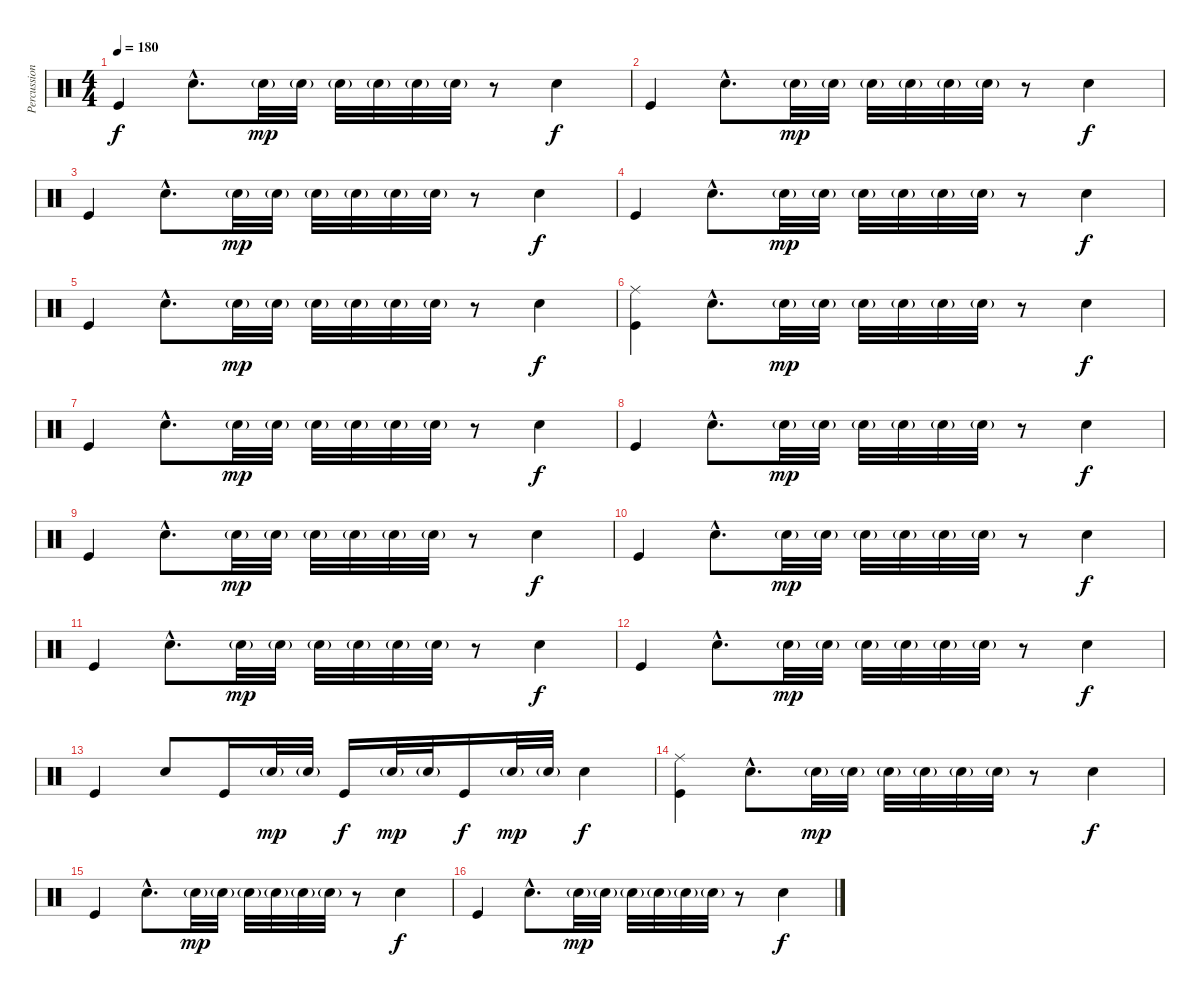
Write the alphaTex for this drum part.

\track ("Percussion" "Percussion") {instrument percussion}
\staff {score}
\articulation defaults
\ts (4 4)
\tempo 180
\clef neutral
\ks c "Kick (hit)".4{dy f} "Snare (hit) 2"{hac}.8{d} "Snare (hit) 2"{g}.32{dy mp} "Snare (hit) 2"{g}.32 "Snare (hit) 2"{g}.32 "Snare (hit) 2"{g}.32 "Snare (hit) 2"{g}.32 "Snare (hit) 2"{g}.32
r.8 "Snare (hit) 2".4{dy f} |
"Kick (hit)".4 "Snare (hit) 2"{hac}.8{d} "Snare (hit) 2"{g}.32{dy mp} "Snare (hit) 2"{g}.32 "Snare (hit) 2"{g}.32 "Snare (hit) 2"{g}.32 "Snare (hit) 2"{g}.32 "Snare (hit) 2"{g}.32 r.8 "Snare (hit) 2".4{dy f} |
"Kick (hit)".4 "Snare (hit) 2"{hac}.8{d} "Snare (hit) 2"{g}.32{dy mp} "Snare (hit) 2"{g}.32 "Snare (hit) 2"{g}.32 "Snare (hit) 2"{g}.32 "Snare (hit) 2"{g}.32 "Snare (hit) 2"{g}.32 r.8 "Snare (hit) 2".4{dy f} |
"Kick (hit)".4 "Snare (hit) 2"{hac}.8{d} "Snare (hit) 2"{g}.32{dy mp} "Snare (hit) 2"{g}.32 "Snare (hit) 2"{g}.32 "Snare (hit) 2"{g}.32 "Snare (hit) 2"{g}.32 "Snare (hit) 2"{g}.32 r.8 "Snare (hit) 2".4{dy f} |
"Kick (hit)".4 "Snare (hit) 2"{hac}.8{d} "Snare (hit) 2"{g}.32{dy mp} "Snare (hit) 2"{g}.32 "Snare (hit) 2"{g}.32 "Snare (hit) 2"{g}.32 "Snare (hit) 2"{g}.32 "Snare (hit) 2"{g}.32 r.8 "Snare (hit) 2".4{dy f} |
("Ride (middle)" "Kick (hit)").4 "Snare (hit) 2"{hac}.8{d} "Snare (hit) 2"{g}.32{dy mp} "Snare (hit) 2"{g}.32 "Snare (hit) 2"{g}.32 "Snare (hit) 2"{g}.32 "Snare (hit) 2"{g}.32 "Snare (hit) 2"{g}.32 r.8 "Snare (hit) 2".4{dy f} |
"Kick (hit)".4 "Snare (hit) 2"{hac}.8{d} "Snare (hit) 2"{g}.32{dy mp} "Snare (hit) 2"{g}.32 "Snare (hit) 2"{g}.32 "Snare (hit) 2"{g}.32 "Snare (hit) 2"{g}.32 "Snare (hit) 2"{g}.32 r.8 "Snare (hit) 2".4{dy f} |
"Kick (hit)".4 "Snare (hit) 2"{hac}.8{d} "Snare (hit) 2"{g}.32{dy mp} "Snare (hit) 2"{g}.32 "Snare (hit) 2"{g}.32 "Snare (hit) 2"{g}.32 "Snare (hit) 2"{g}.32 "Snare (hit) 2"{g}.32 r.8 "Snare (hit) 2".4{dy f} |
"Kick (hit)".4 "Snare (hit) 2"{hac}.8{d} "Snare (hit) 2"{g}.32{dy mp} "Snare (hit) 2"{g}.32 "Snare (hit) 2"{g}.32 "Snare (hit) 2"{g}.32 "Snare (hit) 2"{g}.32 "Snare (hit) 2"{g}.32 r.8 "Snare (hit) 2".4{dy f} |
"Kick (hit)".4 "Snare (hit) 2"{hac}.8{d} "Snare (hit) 2"{g}.32{dy mp} "Snare (hit) 2"{g}.32 "Snare (hit) 2"{g}.32 "Snare (hit) 2"{g}.32 "Snare (hit) 2"{g}.32 "Snare (hit) 2"{g}.32 r.8 "Snare (hit) 2".4{dy f} |
"Kick (hit)".4 "Snare (hit) 2"{hac}.8{d} "Snare (hit) 2"{g}.32{dy mp} "Snare (hit) 2"{g}.32 "Snare (hit) 2"{g}.32 "Snare (hit) 2"{g}.32 "Snare (hit) 2"{g}.32 "Snare (hit) 2"{g}.32 r.8 "Snare (hit) 2".4{dy f} |
"Kick (hit)".4 "Snare (hit) 2"{hac}.8{d} "Snare (hit) 2"{g}.32{dy mp} "Snare (hit) 2"{g}.32 "Snare (hit) 2"{g}.32 "Snare (hit) 2"{g}.32 "Snare (hit) 2"{g}.32 "Snare (hit) 2"{g}.32 r.8 "Snare (hit) 2".4{dy f} |
"Kick (hit)".4 "Snare (hit) 2".8 "Kick (hit)".16 "Snare (hit) 2"{g}.32{dy mp} "Snare (hit) 2"{g}.32 "Kick (hit)".16{dy f} "Snare (hit) 2"{g}.32{dy mp} "Snare (hit) 2"{g}.32 "Kick (hit)".16{dy f} "Snare (hit) 2"{g}.32{dy mp} "Snare (hit) 2"{g}.32 "Snare (hit) 2".4{dy f} |
("Ride (middle)" "Kick (hit)").4 "Snare (hit) 2"{hac}.8{d} "Snare (hit) 2"{g}.32{dy mp} "Snare (hit) 2"{g}.32 "Snare (hit) 2"{g}.32 "Snare (hit) 2"{g}.32 "Snare (hit) 2"{g}.32 "Snare (hit) 2"{g}.32 r.8 "Snare (hit) 2".4{dy f} |
"Kick (hit)".4 "Snare (hit) 2"{hac}.8{d} "Snare (hit) 2"{g}.32{dy mp} "Snare (hit) 2"{g}.32 "Snare (hit) 2"{g}.32 "Snare (hit) 2"{g}.32 "Snare (hit) 2"{g}.32 "Snare (hit) 2"{g}.32 r.8 "Snare (hit) 2".4{dy f} |
"Kick (hit)".4 "Snare (hit) 2"{hac}.8{d} "Snare (hit) 2"{g}.32{dy mp} "Snare (hit) 2"{g}.32 "Snare (hit) 2"{g}.32 "Snare (hit) 2"{g}.32 "Snare (hit) 2"{g}.32 "Snare (hit) 2"{g}.32 r.8 "Snare (hit) 2".4{dy f}
